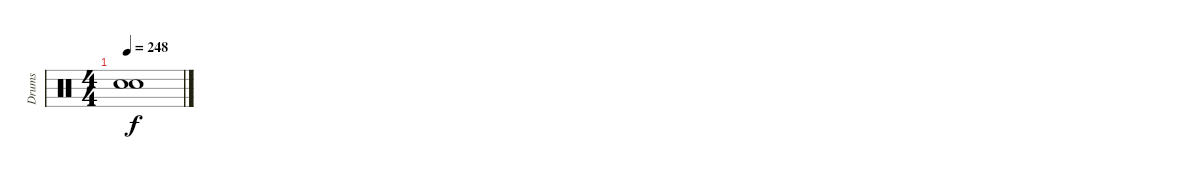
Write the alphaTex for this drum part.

\track ("Drums" "Drums") {instrument percussion}
\staff {score}
\articulation defaults
\ts (4 4)
\tempo 248
\clef neutral
\ks c
("Snare (hit)"{t} "Snare (hit)"{t}).1{dy f}
